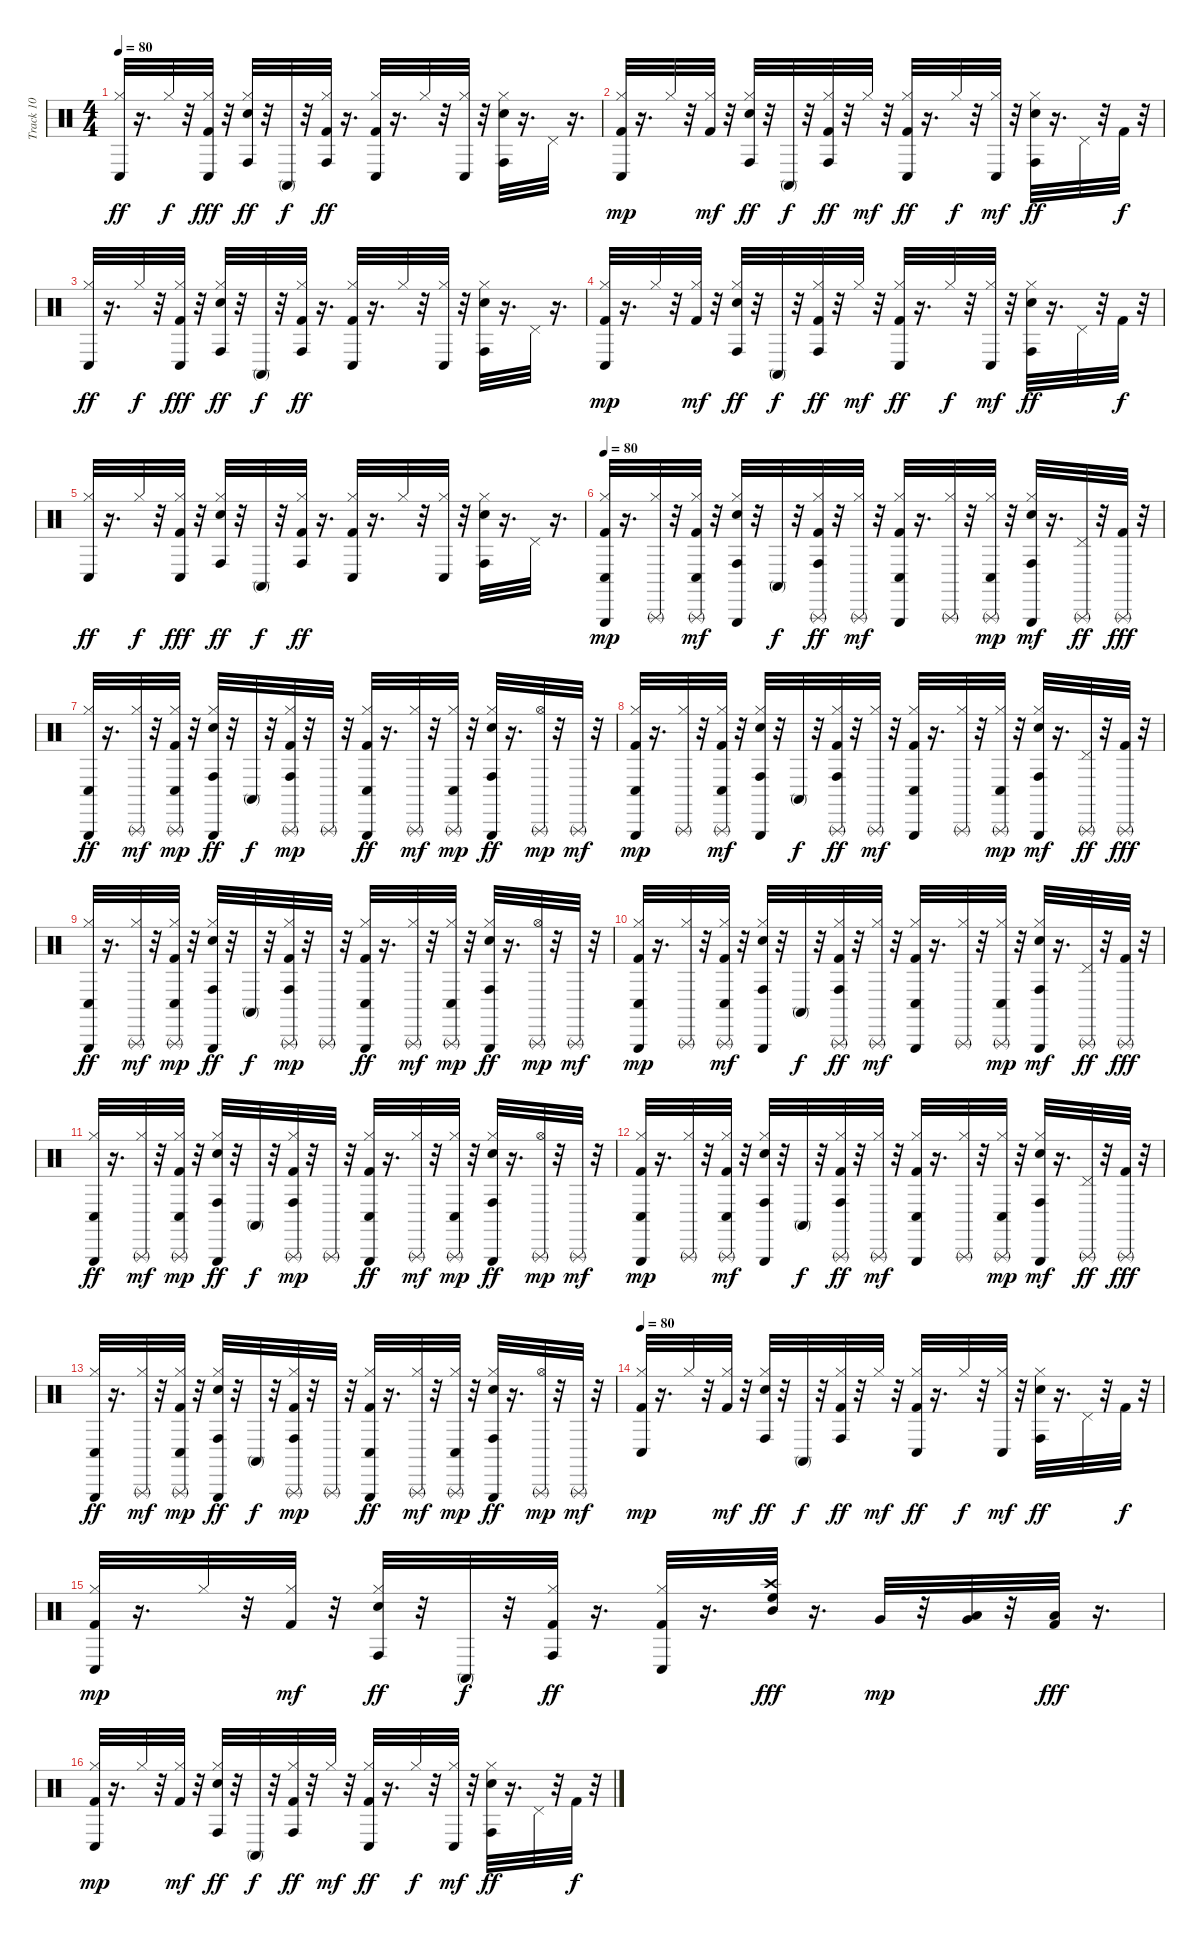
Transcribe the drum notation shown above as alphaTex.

\track ("Track 10" "Track 10") {instrument percussion}
\staff {score}
\articulation defaults
\ts (4 4)
\tempo 80
\clef neutral
\ks c
("Conga low (hit)" "Hi-Hat (closed)").32{dy ff} r.16{d} "Hi-Hat (closed)".32{dy f} r.32 ("Conga low (hit)" "Kick (hit) 2" "Hi-Hat (closed)").32{dy fff} r.32 ("Conga high (hit)" "Snare (hit) 2" "Hi-Hat (closed)").32{dy ff} r.32 "Conga high (mute)".32{dy f} r.32 ("Hi-Hat (closed)" "Conga high (hit)" "Kick (hit) 2").32{dy ff} r.16{d} ("Conga low (hit)" "Kick (hit) 2" "Hi-Hat (closed)").32 r.16{d} "Hi-Hat (closed)".32 r.32 ("Conga low (hit)" "Hi-Hat (closed)").32 r.32 ("Conga high (hit)" "Snare (hit) 2" "Hi-Hat (closed)").32 r.16{d} "Pedal Hi-Hat (hit)".32 r.16{d} |
("Hi-Hat (closed)" "Kick (hit) 2" "Conga low (hit)").32{dy mp} r.16{d} "Hi-Hat (closed)".32 r.32 ("Kick (hit) 2" "Hi-Hat (closed)").32{dy mf} r.32 ("Conga high (hit)" "Snare (hit) 2" "Hi-Hat (closed)").32{dy ff} r.32 "Conga high (mute)".32{dy f} r.32 ("Conga high (hit)" "Kick (hit) 2" "Hi-Hat (closed)").32{dy ff} r.32 "Hi-Hat (closed)".32{dy mf} r.32 ("Conga low (hit)" "Kick (hit) 2" "Hi-Hat (closed)").32{dy ff} r.16{d} "Hi-Hat (closed)".32{dy f} r.32 ("Conga low (hit)" "Hi-Hat (closed)").32{dy mf} r.32 ("Conga high (hit)" "Snare (hit) 2" "Hi-Hat (closed)").32{dy ff} r.16{d} "Pedal Hi-Hat (hit)".32 r.32 "Kick (hit) 2".32{dy f} r.32 |
("Conga low (hit)" "Hi-Hat (closed)").32{dy ff} r.16{d} "Hi-Hat (closed)".32{dy f} r.32 ("Conga low (hit)" "Kick (hit) 2" "Hi-Hat (closed)").32{dy fff} r.32 ("Conga high (hit)" "Snare (hit) 2" "Hi-Hat (closed)").32{dy ff} r.32 "Conga high (mute)".32{dy f} r.32 ("Hi-Hat (closed)" "Conga high (hit)" "Kick (hit) 2").32{dy ff} r.16{d} ("Conga low (hit)" "Kick (hit) 2" "Hi-Hat (closed)").32 r.16{d} "Hi-Hat (closed)".32 r.32 ("Conga low (hit)" "Hi-Hat (closed)").32 r.32 ("Conga high (hit)" "Snare (hit) 2" "Hi-Hat (closed)").32 r.16{d} "Pedal Hi-Hat (hit)".32 r.16{d} |
("Hi-Hat (closed)" "Kick (hit) 2" "Conga low (hit)").32{dy mp} r.16{d} "Hi-Hat (closed)".32 r.32 ("Kick (hit) 2" "Hi-Hat (closed)").32{dy mf} r.32 ("Conga high (hit)" "Snare (hit) 2" "Hi-Hat (closed)").32{dy ff} r.32 "Conga high (mute)".32{dy f} r.32 ("Conga high (hit)" "Kick (hit) 2" "Hi-Hat (closed)").32{dy ff} r.32 "Hi-Hat (closed)".32{dy mf} r.32 ("Conga low (hit)" "Kick (hit) 2" "Hi-Hat (closed)").32{dy ff} r.16{d} "Hi-Hat (closed)".32{dy f} r.32 ("Conga low (hit)" "Hi-Hat (closed)").32{dy mf} r.32 ("Conga high (hit)" "Snare (hit) 2" "Hi-Hat (closed)").32{dy ff} r.16{d} "Pedal Hi-Hat (hit)".32 r.32 "Kick (hit) 2".32{dy f} r.32 |
("Conga low (hit)" "Hi-Hat (closed)").32{dy ff} r.16{d} "Hi-Hat (closed)".32{dy f} r.32 ("Conga low (hit)" "Kick (hit) 2" "Hi-Hat (closed)").32{dy fff} r.32 ("Conga high (hit)" "Snare (hit) 2" "Hi-Hat (closed)").32{dy ff} r.32 "Conga high (mute)".32{dy f} r.32 ("Hi-Hat (closed)" "Conga high (hit)" "Kick (hit) 2").32{dy ff} r.16{d} ("Conga low (hit)" "Kick (hit) 2" "Hi-Hat (closed)").32 r.16{d} "Hi-Hat (closed)".32 r.32 ("Conga low (hit)" "Hi-Hat (closed)").32 r.32 ("Conga high (hit)" "Snare (hit) 2" "Hi-Hat (closed)").32 r.16{d} "Pedal Hi-Hat (hit)".32 r.16{d} |
\tempo 80
("Hi-Hat (closed)" "Kick (hit) 2" "Conga low (hit)" "Triangle (hit)").32{dy mp} r.16{d} ("Triangle (rnute)" "Hi-Hat (closed)").32 r.32 ("Triangle (rnute)" "Conga low (hit)" "Kick (hit) 2" "Hi-Hat (closed)").32{dy mf} r.32 ("Conga high (hit)" "Snare (hit) 2" "Hi-Hat (closed)" "Triangle (hit)").32 r.32 "Conga high (mute)".32{dy f} r.32 ("Triangle (rnute)" "Conga high (hit)" "Kick (hit) 2" "Hi-Hat (closed)").32{dy ff} r.32 ("Triangle (rnute)" "Hi-Hat (closed)").32{dy mf} r.32 ("Conga low (hit)" "Kick (hit) 2" "Hi-Hat (closed)" "Triangle (hit)").32 r.16{d} ("Triangle (rnute)" "Hi-Hat (closed)").32 r.32 ("Conga low (hit)" "Hi-Hat (closed)" "Triangle (rnute)").32{dy mp} r.32 ("Conga high (hit)" "Snare (hit) 2" "Hi-Hat (closed)" "Triangle (hit)").32{dy mf} r.16{d} ("Triangle (rnute)" "Pedal Hi-Hat (hit)").32{dy ff} r.32 ("Triangle (rnute)" "Kick (hit) 2").32{dy fff} r.32 |
("Triangle (hit)" "Conga low (hit)" "Hi-Hat (closed)").32{dy ff} r.16{d} ("Triangle (rnute)" "Hi-Hat (closed)").32{dy mf} r.32 ("Conga low (hit)" "Kick (hit) 2" "Hi-Hat (closed)" "Triangle (rnute)").32{dy mp} r.32 ("Triangle (hit)" "Conga high (hit)" "Snare (hit) 2" "Hi-Hat (closed)").32{dy ff} r.32 "Conga high (mute)".32{dy f} r.32 ("Hi-Hat (closed)" "Conga high (hit)" "Kick (hit) 2" "Triangle (rnute)").32{dy mp} r.32 "Triangle (rnute)".32 r.32 ("Triangle (hit)" "Conga low (hit)" "Kick (hit) 2" "Hi-Hat (closed)").32{dy ff} r.16{d} ("Hi-Hat (closed)" "Triangle (rnute)").32{dy mf} r.32 ("Conga low (hit)" "Hi-Hat (closed)" "Triangle (rnute)").32{dy mp} r.32 ("Triangle (hit)" "Conga high (hit)" "Snare (hit) 2" "Hi-Hat (closed)").32{dy ff} r.16{d} ("Triangle (rnute)" "Hi-Hat (open)").32{dy mp} r.32 "Triangle (rnute)".32{dy mf} r.32 |
("Hi-Hat (closed)" "Kick (hit) 2" "Conga low (hit)" "Triangle (hit)").32{dy mp} r.16{d} ("Triangle (rnute)" "Hi-Hat (closed)").32 r.32 ("Triangle (rnute)" "Conga low (hit)" "Kick (hit) 2" "Hi-Hat (closed)").32{dy mf} r.32 ("Conga high (hit)" "Snare (hit) 2" "Hi-Hat (closed)" "Triangle (hit)").32 r.32 "Conga high (mute)".32{dy f} r.32 ("Triangle (rnute)" "Conga high (hit)" "Kick (hit) 2" "Hi-Hat (closed)").32{dy ff} r.32 ("Triangle (rnute)" "Hi-Hat (closed)").32{dy mf} r.32 ("Conga low (hit)" "Kick (hit) 2" "Hi-Hat (closed)" "Triangle (hit)").32 r.16{d} ("Triangle (rnute)" "Hi-Hat (closed)").32 r.32 ("Conga low (hit)" "Hi-Hat (closed)" "Triangle (rnute)").32{dy mp} r.32 ("Conga high (hit)" "Snare (hit) 2" "Hi-Hat (closed)" "Triangle (hit)").32{dy mf} r.16{d} ("Triangle (rnute)" "Pedal Hi-Hat (hit)").32{dy ff} r.32 ("Triangle (rnute)" "Kick (hit) 2").32{dy fff} r.32 |
("Triangle (hit)" "Conga low (hit)" "Hi-Hat (closed)").32{dy ff} r.16{d} ("Triangle (rnute)" "Hi-Hat (closed)").32{dy mf} r.32 ("Conga low (hit)" "Kick (hit) 2" "Hi-Hat (closed)" "Triangle (rnute)").32{dy mp} r.32 ("Triangle (hit)" "Conga high (hit)" "Snare (hit) 2" "Hi-Hat (closed)").32{dy ff} r.32 "Conga high (mute)".32{dy f} r.32 ("Hi-Hat (closed)" "Conga high (hit)" "Kick (hit) 2" "Triangle (rnute)").32{dy mp} r.32 "Triangle (rnute)".32 r.32 ("Triangle (hit)" "Conga low (hit)" "Kick (hit) 2" "Hi-Hat (closed)").32{dy ff} r.16{d} ("Hi-Hat (closed)" "Triangle (rnute)").32{dy mf} r.32 ("Conga low (hit)" "Hi-Hat (closed)" "Triangle (rnute)").32{dy mp} r.32 ("Triangle (hit)" "Conga high (hit)" "Snare (hit) 2" "Hi-Hat (closed)").32{dy ff} r.16{d} ("Triangle (rnute)" "Hi-Hat (open)").32{dy mp} r.32 "Triangle (rnute)".32{dy mf} r.32 |
("Hi-Hat (closed)" "Kick (hit) 2" "Conga low (hit)" "Triangle (hit)").32{dy mp} r.16{d} ("Triangle (rnute)" "Hi-Hat (closed)").32 r.32 ("Triangle (rnute)" "Conga low (hit)" "Kick (hit) 2" "Hi-Hat (closed)").32{dy mf} r.32 ("Conga high (hit)" "Snare (hit) 2" "Hi-Hat (closed)" "Triangle (hit)").32 r.32 "Conga high (mute)".32{dy f} r.32 ("Triangle (rnute)" "Conga high (hit)" "Kick (hit) 2" "Hi-Hat (closed)").32{dy ff} r.32 ("Triangle (rnute)" "Hi-Hat (closed)").32{dy mf} r.32 ("Conga low (hit)" "Kick (hit) 2" "Hi-Hat (closed)" "Triangle (hit)").32 r.16{d} ("Triangle (rnute)" "Hi-Hat (closed)").32 r.32 ("Conga low (hit)" "Hi-Hat (closed)" "Triangle (rnute)").32{dy mp} r.32 ("Conga high (hit)" "Snare (hit) 2" "Hi-Hat (closed)" "Triangle (hit)").32{dy mf} r.16{d} ("Triangle (rnute)" "Pedal Hi-Hat (hit)").32{dy ff} r.32 ("Triangle (rnute)" "Kick (hit) 2").32{dy fff} r.32 |
("Triangle (hit)" "Conga low (hit)" "Hi-Hat (closed)").32{dy ff} r.16{d} ("Triangle (rnute)" "Hi-Hat (closed)").32{dy mf} r.32 ("Conga low (hit)" "Kick (hit) 2" "Hi-Hat (closed)" "Triangle (rnute)").32{dy mp} r.32 ("Triangle (hit)" "Conga high (hit)" "Snare (hit) 2" "Hi-Hat (closed)").32{dy ff} r.32 "Conga high (mute)".32{dy f} r.32 ("Hi-Hat (closed)" "Conga high (hit)" "Kick (hit) 2" "Triangle (rnute)").32{dy mp} r.32 "Triangle (rnute)".32 r.32 ("Triangle (hit)" "Conga low (hit)" "Kick (hit) 2" "Hi-Hat (closed)").32{dy ff} r.16{d} ("Hi-Hat (closed)" "Triangle (rnute)").32{dy mf} r.32 ("Conga low (hit)" "Hi-Hat (closed)" "Triangle (rnute)").32{dy mp} r.32 ("Triangle (hit)" "Conga high (hit)" "Snare (hit) 2" "Hi-Hat (closed)").32{dy ff} r.16{d} ("Triangle (rnute)" "Hi-Hat (open)").32{dy mp} r.32 "Triangle (rnute)".32{dy mf} r.32 |
("Hi-Hat (closed)" "Kick (hit) 2" "Conga low (hit)" "Triangle (hit)").32{dy mp} r.16{d} ("Triangle (rnute)" "Hi-Hat (closed)").32 r.32 ("Triangle (rnute)" "Conga low (hit)" "Kick (hit) 2" "Hi-Hat (closed)").32{dy mf} r.32 ("Conga high (hit)" "Snare (hit) 2" "Hi-Hat (closed)" "Triangle (hit)").32 r.32 "Conga high (mute)".32{dy f} r.32 ("Triangle (rnute)" "Conga high (hit)" "Kick (hit) 2" "Hi-Hat (closed)").32{dy ff} r.32 ("Triangle (rnute)" "Hi-Hat (closed)").32{dy mf} r.32 ("Conga low (hit)" "Kick (hit) 2" "Hi-Hat (closed)" "Triangle (hit)").32 r.16{d} ("Triangle (rnute)" "Hi-Hat (closed)").32 r.32 ("Conga low (hit)" "Hi-Hat (closed)" "Triangle (rnute)").32{dy mp} r.32 ("Conga high (hit)" "Snare (hit) 2" "Hi-Hat (closed)" "Triangle (hit)").32{dy mf} r.16{d} ("Triangle (rnute)" "Pedal Hi-Hat (hit)").32{dy ff} r.32 ("Triangle (rnute)" "Kick (hit) 2").32{dy fff} r.32 |
("Triangle (hit)" "Conga low (hit)" "Hi-Hat (closed)").32{dy ff} r.16{d} ("Triangle (rnute)" "Hi-Hat (closed)").32{dy mf} r.32 ("Conga low (hit)" "Kick (hit) 2" "Hi-Hat (closed)" "Triangle (rnute)").32{dy mp} r.32 ("Triangle (hit)" "Conga high (hit)" "Snare (hit) 2" "Hi-Hat (closed)").32{dy ff} r.32 "Conga high (mute)".32{dy f} r.32 ("Hi-Hat (closed)" "Conga high (hit)" "Kick (hit) 2" "Triangle (rnute)").32{dy mp} r.32 "Triangle (rnute)".32 r.32 ("Triangle (hit)" "Conga low (hit)" "Kick (hit) 2" "Hi-Hat (closed)").32{dy ff} r.16{d} ("Hi-Hat (closed)" "Triangle (rnute)").32{dy mf} r.32 ("Conga low (hit)" "Hi-Hat (closed)" "Triangle (rnute)").32{dy mp} r.32 ("Triangle (hit)" "Conga high (hit)" "Snare (hit) 2" "Hi-Hat (closed)").32{dy ff} r.16{d} ("Triangle (rnute)" "Hi-Hat (open)").32{dy mp} r.32 "Triangle (rnute)".32{dy mf} r.32 |
\tempo 80
("Hi-Hat (closed)" "Kick (hit) 2" "Conga low (hit)").32{dy mp} r.16{d} "Hi-Hat (closed)".32 r.32 ("Kick (hit) 2" "Hi-Hat (closed)").32{dy mf} r.32 ("Conga high (hit)" "Snare (hit) 2" "Hi-Hat (closed)").32{dy ff} r.32 "Conga high (mute)".32{dy f} r.32 ("Conga high (hit)" "Kick (hit) 2" "Hi-Hat (closed)").32{dy ff} r.32 "Hi-Hat (closed)".32{dy mf} r.32 ("Conga low (hit)" "Kick (hit) 2" "Hi-Hat (closed)").32{dy ff} r.16{d} "Hi-Hat (closed)".32{dy f} r.32 ("Conga low (hit)" "Hi-Hat (closed)").32{dy mf} r.32 ("Conga high (hit)" "Snare (hit) 2" "Hi-Hat (closed)").32{dy ff} r.16{d} "Pedal Hi-Hat (hit)".32 r.32 "Kick (hit) 2".32{dy f} r.32 |
("Hi-Hat (closed)" "Kick (hit) 2" "Conga low (hit)").32{dy mp} r.16{d} "Hi-Hat (closed)".32 r.32 ("Kick (hit) 2" "Hi-Hat (closed)").32{dy mf} r.32 ("Conga high (hit)" "Snare (hit) 2" "Hi-Hat (closed)").32{dy ff} r.32 "Conga high (mute)".32{dy f} r.32 ("Conga high (hit)" "Kick (hit) 2" "Hi-Hat (closed)").32{dy ff} r.16{d} ("Conga low (hit)" "Kick (hit) 2" "Hi-Hat (closed)").32 r.16{d} ("High Floor Tom (hit)" "Crash high (hit)" "Mid Tom (hit)").32{dy fff} r.16{d} "Very Low Tom (hit)".32{dy mp} r.32 ("Low Floor Tom (hit)" "Very Low Tom (hit)").32 r.32 ("Low Floor Tom (hit)" "Kick (hit) 2").32{dy fff} r.16{d} |
("Hi-Hat (closed)" "Kick (hit) 2" "Conga low (hit)").32{dy mp} r.16{d} "Hi-Hat (closed)".32 r.32 ("Kick (hit) 2" "Hi-Hat (closed)").32{dy mf} r.32 ("Conga high (hit)" "Snare (hit) 2" "Hi-Hat (closed)").32{dy ff} r.32 "Conga high (mute)".32{dy f} r.32 ("Conga high (hit)" "Kick (hit) 2" "Hi-Hat (closed)").32{dy ff} r.32 "Hi-Hat (closed)".32{dy mf} r.32 ("Conga low (hit)" "Kick (hit) 2" "Hi-Hat (closed)").32{dy ff} r.16{d} "Hi-Hat (closed)".32{dy f} r.32 ("Conga low (hit)" "Hi-Hat (closed)").32{dy mf} r.32 ("Conga high (hit)" "Snare (hit) 2" "Hi-Hat (closed)").32{dy ff} r.16{d} "Pedal Hi-Hat (hit)".32 r.32 "Kick (hit) 2".32{dy f} r.32
